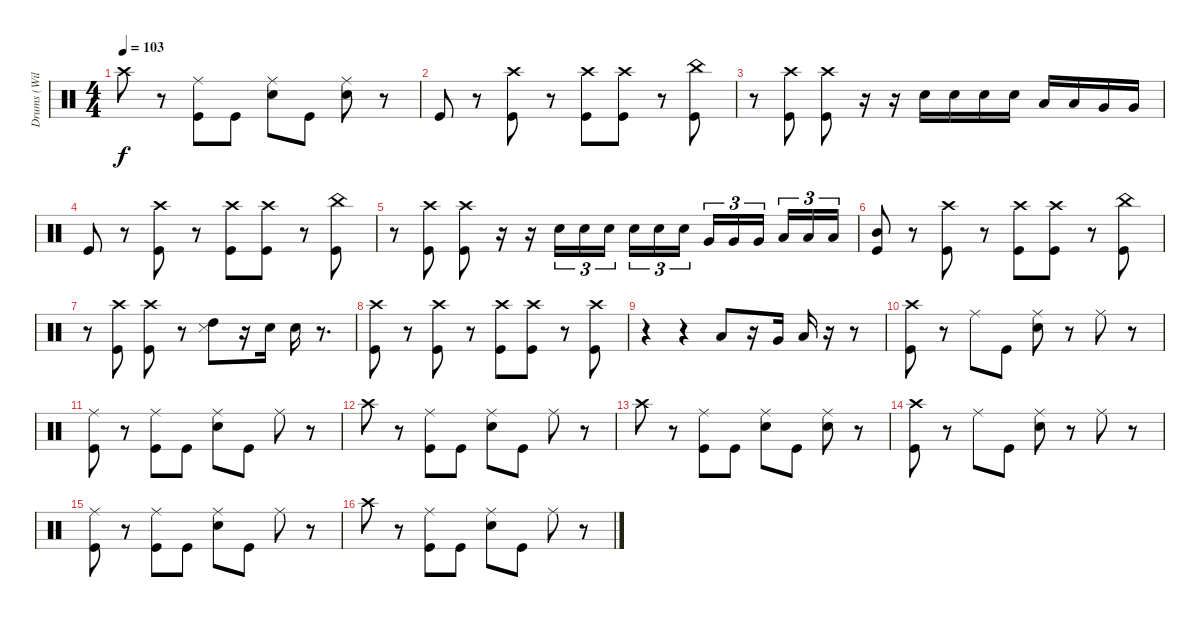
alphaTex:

\track ("Drums (William Ward)" "Drums (Wil") {instrument percussion}
\staff {score}
\articulation defaults
\ts (4 4)
\tempo 103
\clef neutral
\ks c "Crash high (hit)".8{dy f}
r.8 ("Ride (middle)" "Kick (hit)").8 "Kick (hit)".8 ("Ride (middle)" "Electric Snare (hit)").8 "Kick (hit)".8 ("Ride (middle)" "Electric Snare (hit)").8 r.8 |
"Kick (hit)".8 r.8 ("Crash high (hit)" "Kick (hit)").8 r.8 ("Crash high (hit)" "Kick (hit)").8 ("Crash high (hit)" "Kick (hit)").8 r.8 ("China (hit)" "Kick (hit)").8 |
r.8 ("Crash high (hit)" "Kick (hit)").8 ("Crash high (hit)" "Kick (hit)").8 r.16 r.16 "Electric Snare (hit)".16 "Electric Snare (hit)".16 "Electric Snare (hit)".16 "Electric Snare (hit)".16 "Low Tom (hit)".16 "Low Tom (hit)".16 "Very Low Tom (hit)".16 "Very Low Tom (hit)".16 |
"Kick (hit)".8 r.8 ("Crash high (hit)" "Kick (hit)").8 r.8 ("Crash high (hit)" "Kick (hit)").8 ("Crash high (hit)" "Kick (hit)").8 r.8 ("China (hit)" "Kick (hit)").8 |
r.8 ("Crash high (hit)" "Kick (hit)").8 ("Crash high (hit)" "Kick (hit)").8 r.16 r.16 "Electric Snare (hit)".16{tu (3 2)} "Electric Snare (hit)".16{tu (3 2)} "Electric Snare (hit)".16{tu (3 2)} "Electric Snare (hit)".16{tu (3 2)} "Electric Snare (hit)".16{tu (3 2)} "Electric Snare (hit)".16{tu (3 2)} "Very Low Tom (hit)".16{tu (3 2)} "Very Low Tom (hit)".16{tu (3 2)} "Very Low Tom (hit)".16{tu (3 2)} "Low Floor Tom (hit)".16{tu (3 2)} "Low Floor Tom (hit)".16{tu (3 2)} "Low Floor Tom (hit)".16{tu (3 2)} |
("Mid Tom (hit)" "Kick (hit)").8 r.8 ("Crash high (hit)" "Kick (hit)").8 r.8 ("Crash high (hit)" "Kick (hit)").8 ("Crash high (hit)" "Kick (hit)").8 r.8 ("China (hit)" "Kick (hit)").8 |
r.8 ("Crash high (hit)" "Kick (hit)").8 ("Crash high (hit)" "Kick (hit)").8 r.8 ("Metronome (hit)" "High Tom (hit)").8 r.16 "Electric Snare (hit)".16 "Electric Snare (hit)".16 r.8{d} |
("Crash high (hit)" "Kick (hit)").8 r.8 ("Crash high (hit)" "Kick (hit)").8 r.8 ("Crash high (hit)" "Kick (hit)").8 ("Crash high (hit)" "Kick (hit)").8 r.8 ("Crash high (hit)" "Kick (hit)").8 |
r.4 r.4 "Low Tom (hit)".8 r.16 "Very Low Tom (hit)".16 "Low Floor Tom (hit)".16 r.16 r.8 |
("Crash high (hit)" "Kick (hit)").8 r.8 "Ride (middle)".8 "Kick (hit)".8 ("Ride (middle)" "Electric Snare (hit)").8 r.8 "Ride (middle)".8 r.8 |
("Ride (middle)" "Kick (hit)").8 r.8 ("Ride (middle)" "Kick (hit)").8 "Kick (hit)".8 ("Ride (middle)" "Electric Snare (hit)").8 "Kick (hit)".8 "Ride (middle)".8 r.8 |
"Crash high (hit)".8 r.8 ("Ride (middle)" "Kick (hit)").8 "Kick (hit)".8 ("Ride (middle)" "Electric Snare (hit)").8 "Kick (hit)".8 "Ride (middle)".8 r.8 |
"Crash high (hit)".8 r.8 ("Ride (middle)" "Kick (hit)").8 "Kick (hit)".8 ("Ride (middle)" "Electric Snare (hit)").8 "Kick (hit)".8 ("Ride (middle)" "Electric Snare (hit)").8 r.8 |
("Crash high (hit)" "Kick (hit)").8 r.8 "Ride (middle)".8 "Kick (hit)".8 ("Ride (middle)" "Electric Snare (hit)").8 r.8 "Ride (middle)".8 r.8 |
("Ride (middle)" "Kick (hit)").8 r.8 ("Ride (middle)" "Kick (hit)").8 "Kick (hit)".8 ("Ride (middle)" "Electric Snare (hit)").8 "Kick (hit)".8 "Ride (middle)".8 r.8 |
"Crash high (hit)".8 r.8 ("Ride (middle)" "Kick (hit)").8 "Kick (hit)".8 ("Ride (middle)" "Electric Snare (hit)").8 "Kick (hit)".8 "Ride (middle)".8 r.8
